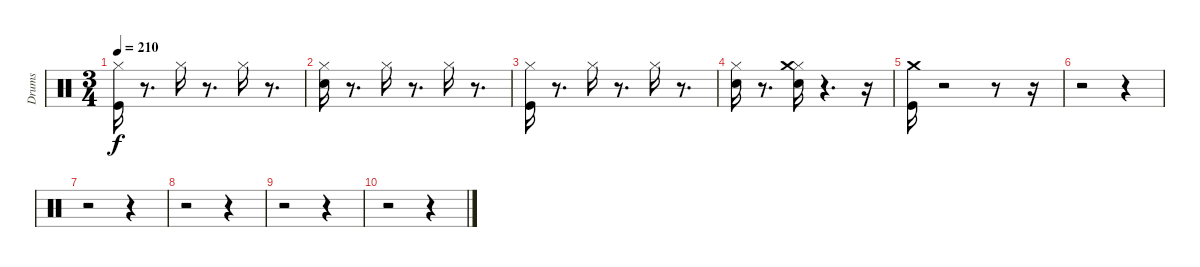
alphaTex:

\track ("Drums" "Drums") {instrument percussion}
\staff {score}
\articulation defaults
\ts (3 4)
\tempo 210
\clef neutral
\ks c
("Kick (hit)" "Hi-Hat (closed)").16{dy f} r.8{d} "Hi-Hat (closed)".16 r.8{d} "Hi-Hat (closed)".16 r.8{d} |
("Hi-Hat (closed)" "Electric Snare (hit)").16 r.8{d} "Hi-Hat (closed)".16 r.8{d} "Hi-Hat (closed)".16 r.8{d} |
("Kick (hit)" "Hi-Hat (closed)").16 r.8{d} "Hi-Hat (closed)".16 r.8{d} "Hi-Hat (closed)".16 r.8{d} |
("Hi-Hat (closed)" "Electric Snare (hit)").16 r.8{d} ("Hi-Hat (closed)" "Electric Snare (hit)" "Crash medium (hit)").16 r.4{d} r.16 |
("Kick (hit)" "Crash medium (hit)").16 r.2 r.8 r.16 |
r.2 r.4 |
r.2 r.4 |
r.2 r.4 |
r.2 r.4 |
r.2 r.4
